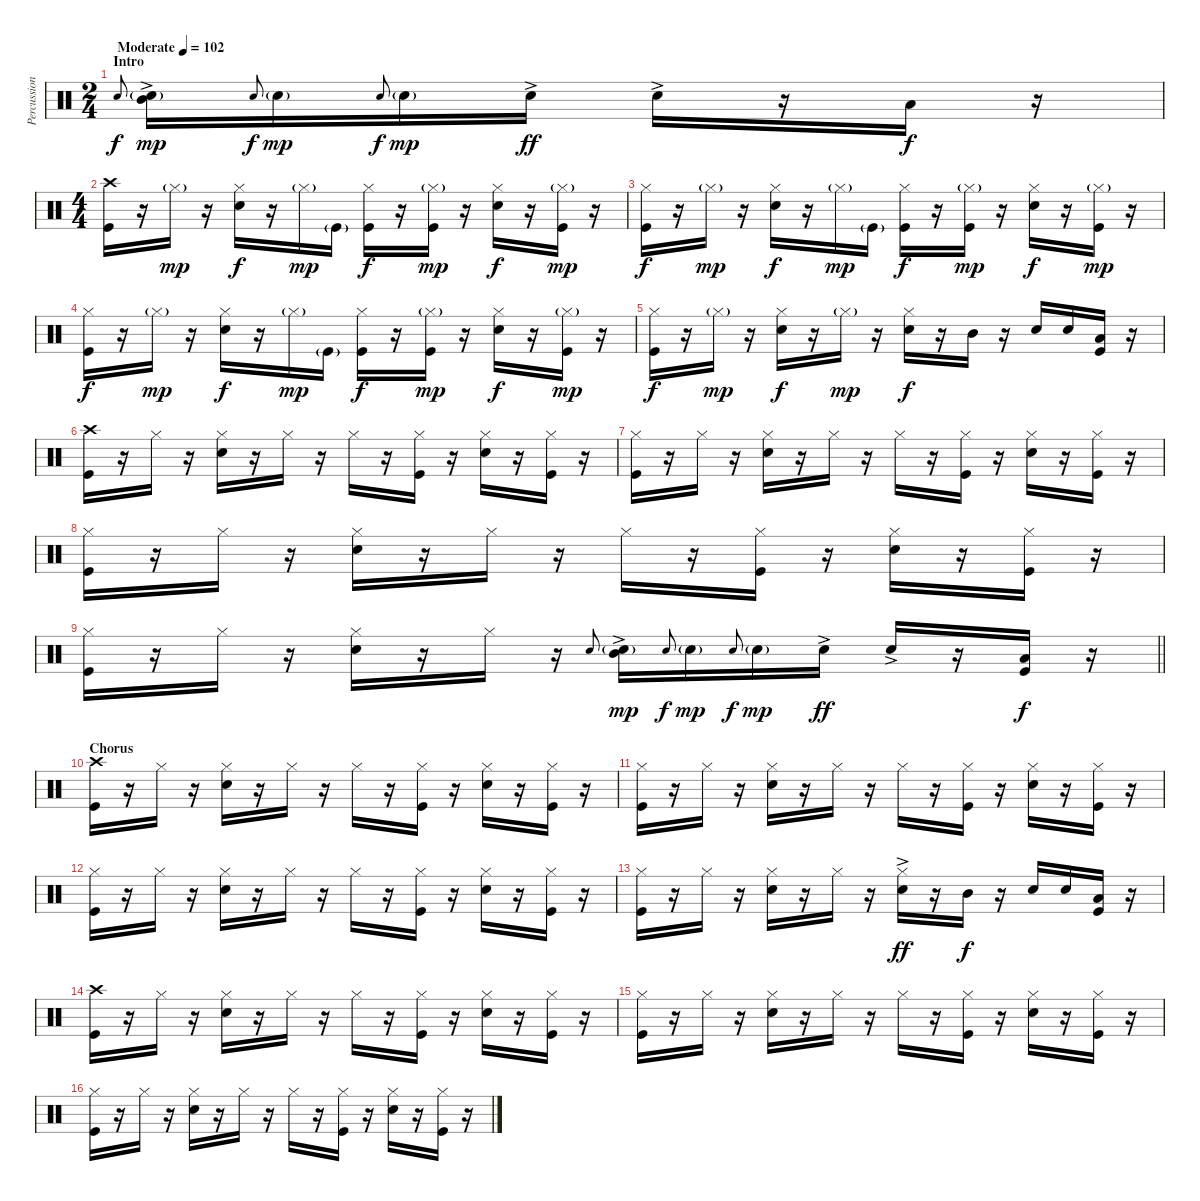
\track ("Percussion" "Percussion") {instrument percussion}
\staff {score}
\articulation defaults
\ts (2 4)
\section ("" "Intro")
\tempo (102 "Moderate")
\clef neutral
\ks c "Snare (hit) 2".8{gr onbeat dy f}
("Mid Tom (hit)"{ac} "Snare (hit) 2"{g}).16{dy mp} "Snare (hit) 2".8{gr onbeat dy f} "Snare (hit) 2"{g}.16{dy mp} "Snare (hit) 2".8{gr onbeat dy f} "Snare (hit) 2"{g}.16{dy mp} "Snare (hit) 2"{ac}.16{dy ff} "Snare (hit) 2"{ac}.16 r.16 "Low Tom (hit)".16{dy f} r.16 |
\ts (4 4)
("Crash high (hit)" "Kick (hit)").16 r.16 "Hi-Hat (closed)"{g}.16{dy mp} r.16 ("Hi-Hat (closed)" "Snare (hit) 2").16{dy f} r.16 "Hi-Hat (closed)"{g}.16{dy mp} "Kick (hit)"{g}.16 ("Hi-Hat (closed)" "Kick (hit)").16{dy f} r.16 ("Hi-Hat (closed)"{g} "Kick (hit)").16{dy mp} r.16 ("Hi-Hat (closed)" "Snare (hit) 2").16{dy f} r.16 ("Hi-Hat (closed)"{g} "Kick (hit)").16{dy mp} r.16 |
("Hi-Hat (closed)" "Kick (hit)").16{dy f} r.16 "Hi-Hat (closed)"{g}.16{dy mp} r.16 ("Hi-Hat (closed)" "Snare (hit) 2").16{dy f} r.16 "Hi-Hat (closed)"{g}.16{dy mp} "Kick (hit)"{g}.16 ("Hi-Hat (closed)" "Kick (hit)").16{dy f} r.16 ("Hi-Hat (closed)"{g} "Kick (hit)").16{dy mp} r.16 ("Hi-Hat (closed)" "Snare (hit) 2").16{dy f} r.16 ("Hi-Hat (closed)"{g} "Kick (hit)").16{dy mp} r.16 |
("Hi-Hat (closed)" "Kick (hit)").16{dy f} r.16 "Hi-Hat (closed)"{g}.16{dy mp} r.16 ("Hi-Hat (closed)" "Snare (hit) 2").16{dy f} r.16 "Hi-Hat (closed)"{g}.16{dy mp} "Kick (hit)"{g}.16 ("Hi-Hat (closed)" "Kick (hit)").16{dy f} r.16 ("Hi-Hat (closed)"{g} "Kick (hit)").16{dy mp} r.16 ("Hi-Hat (closed)" "Snare (hit) 2").16{dy f} r.16 ("Hi-Hat (closed)"{g} "Kick (hit)").16{dy mp} r.16 |
("Hi-Hat (closed)" "Kick (hit)").16{dy f} r.16 "Hi-Hat (closed)"{g}.16{dy mp} r.16 ("Hi-Hat (closed)" "Snare (hit) 2").16{dy f} r.16 "Hi-Hat (closed)"{g}.16{dy mp} r.16 ("Hi-Hat (closed)" "Snare (hit) 2").16{dy f} r.16 "Mid Tom (hit)".16 r.16 "Snare (hit) 2".16 "Snare (hit) 2".16 ("Low Tom (hit)" "Kick (hit)").16 r.16 |
("Crash high (hit)" "Kick (hit)").16 r.16 "Hi-Hat (closed)".16 r.16 ("Hi-Hat (closed)" "Snare (hit) 2").16 r.16 "Hi-Hat (closed)".16 r.16 "Hi-Hat (closed)".16 r.16 ("Hi-Hat (closed)" "Kick (hit)").16 r.16 ("Hi-Hat (closed)" "Snare (hit) 2").16 r.16 ("Hi-Hat (closed)" "Kick (hit)").16 r.16 |
("Hi-Hat (closed)" "Kick (hit)").16 r.16 "Hi-Hat (closed)".16 r.16 ("Hi-Hat (closed)" "Snare (hit) 2").16 r.16 "Hi-Hat (closed)".16 r.16 "Hi-Hat (closed)".16 r.16 ("Hi-Hat (closed)" "Kick (hit)").16 r.16 ("Hi-Hat (closed)" "Snare (hit) 2").16 r.16 ("Hi-Hat (closed)" "Kick (hit)").16 r.16 |
("Hi-Hat (closed)" "Kick (hit)").16 r.16 "Hi-Hat (closed)".16 r.16 ("Hi-Hat (closed)" "Snare (hit) 2").16 r.16 "Hi-Hat (closed)".16 r.16 "Hi-Hat (closed)".16 r.16 ("Hi-Hat (closed)" "Kick (hit)").16 r.16 ("Hi-Hat (closed)" "Snare (hit) 2").16 r.16 ("Hi-Hat (closed)" "Kick (hit)").16 r.16 |
\barLineRight lightlight
("Hi-Hat (closed)" "Kick (hit)").16 r.16 "Hi-Hat (closed)".16 r.16 ("Hi-Hat (closed)" "Snare (hit) 2").16 r.16 "Hi-Hat (closed)".16 r.16 "Snare (hit) 2".8{gr onbeat} ("Mid Tom (hit)"{ac} "Snare (hit) 2"{g}).16{dy mp} "Snare (hit) 2".8{gr onbeat dy f} "Snare (hit) 2"{g}.16{dy mp} "Snare (hit) 2".8{gr onbeat dy f} "Snare (hit) 2"{g}.16{dy mp} "Snare (hit) 2"{ac}.16{dy ff} "Snare (hit) 2"{ac}.16 r.16 ("Low Tom (hit)" "Kick (hit)").16{dy f} r.16 |
\section ("" "Chorus")
("Crash high (hit)" "Kick (hit)").16 r.16 "Hi-Hat (closed)".16 r.16 ("Hi-Hat (closed)" "Snare (hit) 2").16 r.16 "Hi-Hat (closed)".16 r.16 "Hi-Hat (closed)".16 r.16 ("Hi-Hat (closed)" "Kick (hit)").16 r.16 ("Hi-Hat (closed)" "Snare (hit) 2").16 r.16 ("Hi-Hat (closed)" "Kick (hit)").16 r.16 |
("Hi-Hat (closed)" "Kick (hit)").16 r.16 "Hi-Hat (closed)".16 r.16 ("Hi-Hat (closed)" "Snare (hit) 2").16 r.16 "Hi-Hat (closed)".16 r.16 "Hi-Hat (closed)".16 r.16 ("Hi-Hat (closed)" "Kick (hit)").16 r.16 ("Hi-Hat (closed)" "Snare (hit) 2").16 r.16 ("Hi-Hat (closed)" "Kick (hit)").16 r.16 |
("Hi-Hat (closed)" "Kick (hit)").16 r.16 "Hi-Hat (closed)".16 r.16 ("Hi-Hat (closed)" "Snare (hit) 2").16 r.16 "Hi-Hat (closed)".16 r.16 "Hi-Hat (closed)".16 r.16 ("Hi-Hat (closed)" "Kick (hit)").16 r.16 ("Hi-Hat (closed)" "Snare (hit) 2").16 r.16 ("Hi-Hat (closed)" "Kick (hit)").16 r.16 |
("Hi-Hat (closed)" "Kick (hit)").16 r.16 "Hi-Hat (closed)".16 r.16 ("Hi-Hat (closed)" "Snare (hit) 2").16 r.16 "Hi-Hat (closed)".16 r.16 ("Hi-Hat (closed)" "Snare (hit) 2"{ac}).16{dy ff} r.16 "Mid Tom (hit)".16{dy f} r.16 "Snare (hit) 2".16 "Snare (hit) 2".16 ("Low Tom (hit)" "Kick (hit)").16 r.16 |
("Crash high (hit)" "Kick (hit)").16 r.16 "Hi-Hat (closed)".16 r.16 ("Hi-Hat (closed)" "Snare (hit) 2").16 r.16 "Hi-Hat (closed)".16 r.16 "Hi-Hat (closed)".16 r.16 ("Hi-Hat (closed)" "Kick (hit)").16 r.16 ("Hi-Hat (closed)" "Snare (hit) 2").16 r.16 ("Hi-Hat (closed)" "Kick (hit)").16 r.16 |
("Hi-Hat (closed)" "Kick (hit)").16 r.16 "Hi-Hat (closed)".16 r.16 ("Hi-Hat (closed)" "Snare (hit) 2").16 r.16 "Hi-Hat (closed)".16 r.16 "Hi-Hat (closed)".16 r.16 ("Hi-Hat (closed)" "Kick (hit)").16 r.16 ("Hi-Hat (closed)" "Snare (hit) 2").16 r.16 ("Hi-Hat (closed)" "Kick (hit)").16 r.16 |
("Hi-Hat (closed)" "Kick (hit)").16 r.16 "Hi-Hat (closed)".16 r.16 ("Hi-Hat (closed)" "Snare (hit) 2").16 r.16 "Hi-Hat (closed)".16 r.16 "Hi-Hat (closed)".16 r.16 ("Hi-Hat (closed)" "Kick (hit)").16 r.16 ("Hi-Hat (closed)" "Snare (hit) 2").16 r.16 ("Hi-Hat (closed)" "Kick (hit)").16 r.16
